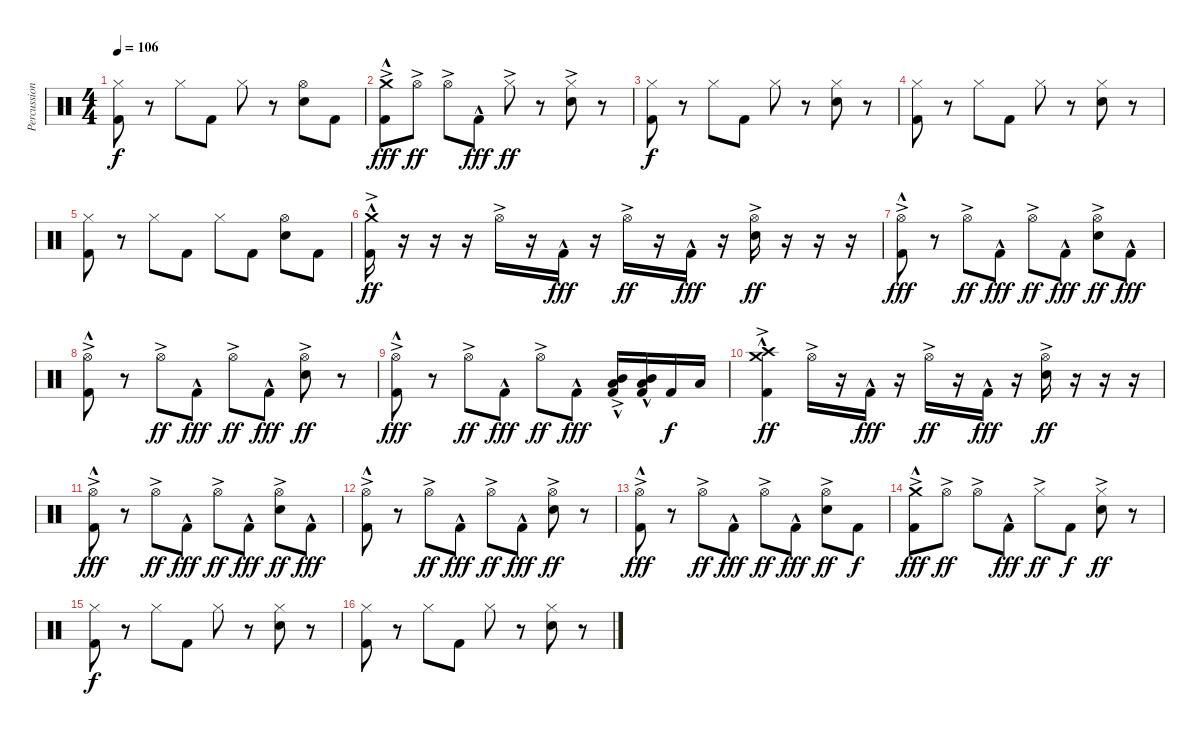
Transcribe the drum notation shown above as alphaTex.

\track ("Percussion" "Percussion") {instrument percussion}
\staff {score}
\articulation defaults
\ts (4 4)
\tempo 106
\clef neutral
\ks c
("Hi-Hat (closed)" "Kick (hit) 2").8{dy f} r.8 "Hi-Hat (closed)".8 "Kick (hit) 2".8 "Hi-Hat (closed)".8 r.8 ("Hi-Hat (open)" "Snare (hit) 2").8 "Kick (hit) 2".8 |
("Crash medium (hit)"{ac} "Kick (hit) 2"{hac}).8{dy fff} "Hi-Hat (open)"{ac}.8{dy ff} "Hi-Hat (open)"{ac}.8 "Kick (hit) 2"{hac}.8{dy fff} "Hi-Hat (closed)"{ac}.8{dy ff} r.8 ("Hi-Hat (closed)"{ac} "Snare (hit) 2"{ac}).8 r.8 |
("Hi-Hat (closed)" "Kick (hit) 2").8{dy f} r.8 "Hi-Hat (closed)".8 "Kick (hit) 2".8 "Hi-Hat (closed)".8 r.8 ("Hi-Hat (closed)" "Snare (hit) 2").8 r.8 |
("Hi-Hat (closed)" "Kick (hit) 2").8 r.8 "Hi-Hat (closed)".8 "Kick (hit) 2".8 "Hi-Hat (closed)".8 r.8 ("Hi-Hat (closed)" "Snare (hit) 2").8 r.8 |
("Hi-Hat (closed)" "Kick (hit) 2").8 r.8 "Hi-Hat (closed)".8 "Kick (hit) 2".8 "Hi-Hat (closed)".8 "Kick (hit) 2".8 ("Hi-Hat (open)" "Snare (hit) 2").8 "Kick (hit) 2".8 |
("Crash medium (hit)"{hac} "Kick (hit) 2"{ac}).16{dy ff} r.16 r.16 r.16 "Hi-Hat (open)"{ac}.16 r.16 "Kick (hit) 2"{hac}.16{dy fff} r.16 "Hi-Hat (open)"{ac}.16{dy ff} r.16 "Kick (hit) 2"{hac}.16{dy fff} r.16 ("Hi-Hat (open)"{ac} "Snare (hit) 2"{ac}).16{dy ff} r.16 r.16 r.16 |
("Hi-Hat (open)"{ac} "Kick (hit) 2"{hac}).8{dy fff} r.8 "Hi-Hat (open)"{ac}.8{dy ff} "Kick (hit) 2"{hac}.8{dy fff} "Hi-Hat (open)"{ac}.8{dy ff} "Kick (hit) 2"{hac}.8{dy fff} ("Hi-Hat (open)"{ac} "Snare (hit) 2"{ac}).8{dy ff} "Kick (hit) 2"{hac}.8{dy fff} |
("Hi-Hat (open)"{ac} "Kick (hit) 2"{hac}).8 r.8 "Hi-Hat (open)"{ac}.8{dy ff} "Kick (hit) 2"{hac}.8{dy fff} "Hi-Hat (open)"{ac}.8{dy ff} "Kick (hit) 2"{hac}.8{dy fff} ("Hi-Hat (open)"{ac} "Snare (hit) 2"{ac}).8{dy ff} r.8 |
("Hi-Hat (open)"{ac} "Kick (hit) 2"{hac}).8{dy fff} r.8 "Hi-Hat (open)"{ac}.8{dy ff} "Kick (hit) 2"{hac}.8{dy fff} "Hi-Hat (open)"{ac}.8{dy ff} "Kick (hit) 2"{hac}.8{dy fff} ("Low Tom (hit)"{ac} "Mid Tom (hit)"{hac} "Kick (hit) 2").16 ("Low Tom (hit)"{hac} "Mid Tom (hit)"{hac} "Kick (hit) 2").16 "Kick (hit) 2".16{dy f} "Low Tom (hit)".16 |
("Crash medium (hit)"{hac} "Crash high (hit)"{hac} "Kick (hit) 2"{ac}).4{dy ff} "Hi-Hat (open)"{ac}.16 r.16 "Kick (hit) 2"{hac}.16{dy fff} r.16 "Hi-Hat (open)"{ac}.16{dy ff} r.16 "Kick (hit) 2"{hac}.16{dy fff} r.16 ("Hi-Hat (open)"{ac} "Snare (hit) 2"{ac}).16{dy ff} r.16 r.16 r.16 |
("Hi-Hat (open)"{ac} "Kick (hit) 2"{hac}).8{dy fff} r.8 "Hi-Hat (open)"{ac}.8{dy ff} "Kick (hit) 2"{hac}.8{dy fff} "Hi-Hat (open)"{ac}.8{dy ff} "Kick (hit) 2"{hac}.8{dy fff} ("Hi-Hat (open)"{ac} "Snare (hit) 2"{ac}).8{dy ff} "Kick (hit) 2"{hac}.8{dy fff} |
("Hi-Hat (open)"{ac} "Kick (hit) 2"{hac}).8 r.8 "Hi-Hat (open)"{ac}.8{dy ff} "Kick (hit) 2"{hac}.8{dy fff} "Hi-Hat (open)"{ac}.8{dy ff} "Kick (hit) 2"{hac}.8{dy fff} ("Hi-Hat (open)"{ac} "Snare (hit) 2"{ac}).8{dy ff} r.8 |
("Hi-Hat (open)"{ac} "Kick (hit) 2"{hac}).8{dy fff} r.8 "Hi-Hat (open)"{ac}.8{dy ff} "Kick (hit) 2"{hac}.8{dy fff} "Hi-Hat (open)"{ac}.8{dy ff} "Kick (hit) 2"{hac}.8{dy fff} ("Hi-Hat (open)"{ac} "Snare (hit) 2"{ac}).8{dy ff} "Kick (hit) 2".8{dy f} |
("Crash medium (hit)"{ac} "Kick (hit) 2"{hac}).8{dy fff} "Hi-Hat (open)"{ac}.8{dy ff} "Hi-Hat (open)"{ac}.8 "Kick (hit) 2"{hac}.8{dy fff} "Hi-Hat (closed)"{ac}.8{dy ff} "Kick (hit) 2".8{dy f} ("Hi-Hat (closed)"{ac} "Snare (hit) 2"{ac}).8{dy ff} r.8 |
("Hi-Hat (closed)" "Kick (hit) 2").8{dy f} r.8 "Hi-Hat (closed)".8 "Kick (hit) 2".8 "Hi-Hat (closed)".8 r.8 ("Hi-Hat (closed)" "Snare (hit) 2").8 r.8 |
("Hi-Hat (closed)" "Kick (hit) 2").8 r.8 "Hi-Hat (closed)".8 "Kick (hit) 2".8 "Hi-Hat (closed)".8 r.8 ("Hi-Hat (closed)" "Snare (hit) 2").8 r.8
